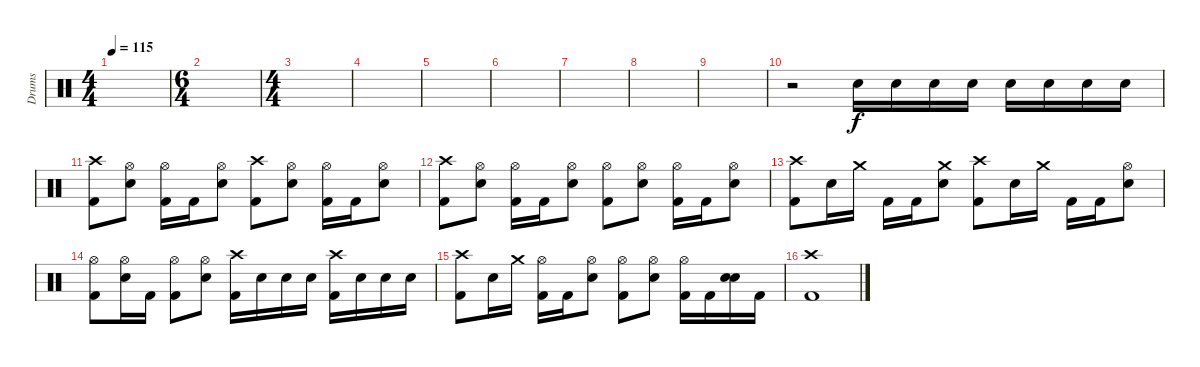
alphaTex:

\track ("Drums" "Drums") {instrument percussion}
\staff {score}
\articulation defaults
\ts (4 4)
\tempo 115
\clef neutral
\ks c
|
\ts (6 4)
|
\ts (4 4)
|
|
|
|
|
|
|
r.2 "Snare (hit) 2".16 "Snare (hit) 2".16 "Snare (hit) 2".16 "Snare (hit) 2".16 "Snare (hit) 2".16 "Snare (hit) 2".16 "Snare (hit) 2".16 "Snare (hit) 2".16 |
("Crash high (hit)" "Kick (hit) 2").8 ("Hi-Hat (open)" "Snare (hit) 2").8 ("Hi-Hat (open)" "Kick (hit) 2").16 "Kick (hit) 2".16 ("Hi-Hat (open)" "Snare (hit) 2").8 ("Crash high (hit)" "Kick (hit) 2").8 ("Hi-Hat (open)" "Snare (hit) 2").8 ("Hi-Hat (open)" "Kick (hit) 2").16 "Kick (hit) 2".16 ("Hi-Hat (open)" "Snare (hit) 2").8 |
("Crash high (hit)" "Kick (hit) 2").8 ("Hi-Hat (open)" "Snare (hit) 2").8 ("Hi-Hat (open)" "Kick (hit) 2").16 "Kick (hit) 2".16 ("Hi-Hat (open)" "Snare (hit) 2").8 ("Hi-Hat (open)" "Kick (hit) 2").8 ("Hi-Hat (open)" "Snare (hit) 2").8 ("Hi-Hat (open)" "Kick (hit) 2").16 "Kick (hit) 2".16 ("Hi-Hat (open)" "Snare (hit) 2").8 |
("Crash high (hit)" "Kick (hit) 2").8 "Snare (hit) 2".16 "Crash medium (hit)".16 "Kick (hit) 2".16 "Kick (hit) 2".16 ("Crash medium (hit)" "Snare (hit) 2").8 ("Crash high (hit)" "Kick (hit) 2").8 "Snare (hit) 2".16 "Crash medium (hit)".16 "Kick (hit) 2".16 "Kick (hit) 2".16 ("Hi-Hat (open)" "Snare (hit) 2").8 |
("Hi-Hat (open)" "Kick (hit) 2").8 ("Hi-Hat (open)" "Snare (hit) 2").16 "Kick (hit) 2".16 ("Hi-Hat (open)" "Kick (hit) 2").8 ("Hi-Hat (open)" "Snare (hit) 2").8 ("Crash high (hit)" "Kick (hit) 2").16 "Snare (hit) 2".16 "Snare (hit) 2".16 "Snare (hit) 2".16 ("Crash high (hit)" "Kick (hit) 2").16 "Snare (hit) 2".16 "Snare (hit) 2".16 "Snare (hit) 2".16 |
("Crash high (hit)" "Kick (hit) 2").8 "Snare (hit) 2".16 "Crash medium (hit)".16 ("Hi-Hat (open)" "Kick (hit) 2").16 "Kick (hit) 2".16 ("Hi-Hat (open)" "Snare (hit) 2").8 ("Hi-Hat (open)" "Kick (hit) 2").8 ("Hi-Hat (open)" "Snare (hit) 2").8 ("Hi-Hat (open)" "Kick (hit) 2").16 "Kick (hit) 2".16 ("Snare (hit) 2" "Snare (hit) 2").16{bd 240} "Kick (hit) 2".16 |
("Crash high (hit)" "Kick (hit) 2").1
